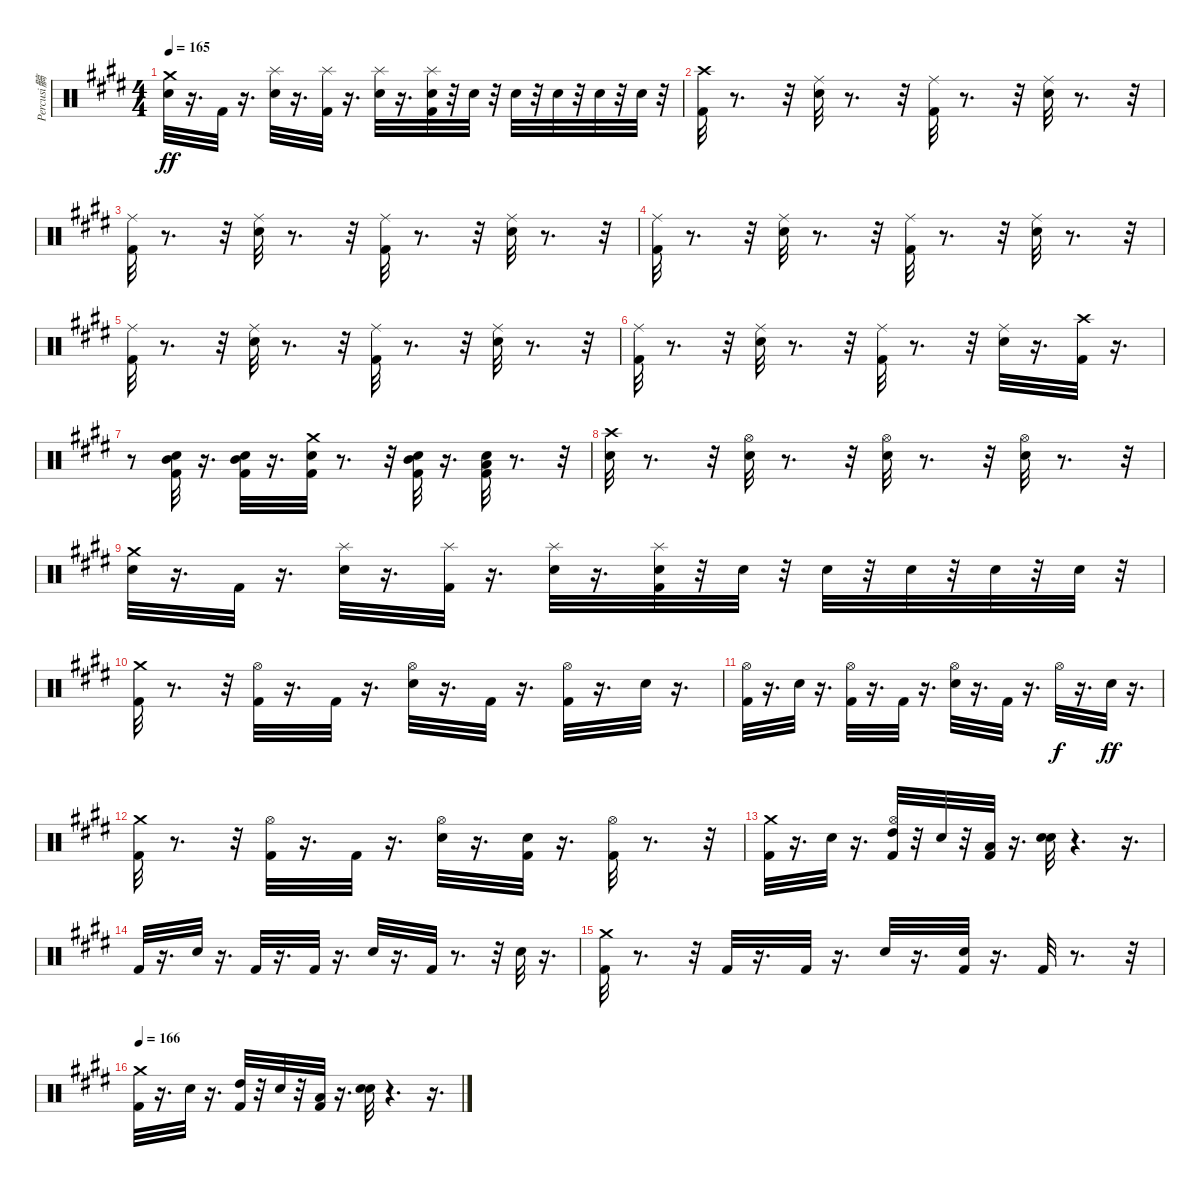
\track ("Percusi髇" "Percusi髇") {instrument percussion}
\staff {score}
\articulation defaults
\ts (4 4)
\tempo 165
\clef neutral
\ks e
("Crash medium (hit)" "Electric Snare (hit)").32{dy ff} r.16{d} "Kick (hit) 2".32 r.16{d} ("Splash (hit)" "Electric Snare (hit)").32 r.16{d} ("Splash (hit)" "Kick (hit) 2").32 r.16{d} ("Splash (hit)" "Electric Snare (hit)").32 r.16{d} ("Splash (hit)" "Kick (hit) 2" "Electric Snare (hit)").32 r.32 "Electric Snare (hit)".32 r.32 "Electric Snare (hit)".32 r.32 "Electric Snare (hit)".32 r.32 "Electric Snare (hit)".32 r.32 "Electric Snare (hit)".32 r.32 |
("Crash high (hit)" "Kick (hit) 2").32 r.8{d} r.32 ("Electric Snare (hit)" "Ride (middle)").32 r.8{d} r.32 ("Kick (hit) 2" "Ride (middle)").32 r.8{d} r.32 ("Electric Snare (hit)" "Ride (middle)").32 r.8{d} r.32 |
("Kick (hit) 2" "Ride (middle)").32 r.8{d} r.32 ("Electric Snare (hit)" "Ride (middle)").32 r.8{d} r.32 ("Kick (hit) 2" "Ride (middle)").32 r.8{d} r.32 ("Electric Snare (hit)" "Ride (middle)").32 r.8{d} r.32 |
("Kick (hit) 2" "Ride (middle)").32 r.8{d} r.32 ("Electric Snare (hit)" "Ride (middle)").32 r.8{d} r.32 ("Kick (hit) 2" "Ride (middle)").32 r.8{d} r.32 ("Electric Snare (hit)" "Ride (middle)").32 r.8{d} r.32 |
("Kick (hit) 2" "Ride (middle)").32 r.8{d} r.32 ("Electric Snare (hit)" "Ride (middle)").32 r.8{d} r.32 ("Kick (hit) 2" "Ride (middle)").32 r.8{d} r.32 ("Electric Snare (hit)" "Ride (middle)").32 r.8{d} r.32 |
("Kick (hit) 2" "Ride (middle)").32 r.8{d} r.32 ("Electric Snare (hit)" "Ride (middle)").32 r.8{d} r.32 ("Kick (hit) 2" "Ride (middle)").32 r.8{d} r.32 ("Electric Snare (hit)" "Ride (middle)").32 r.16{d} ("Crash high (hit)" "Kick (hit) 2").32 r.16{d} |
r.8 ("Mid Tom (hit)" "Kick (hit) 2" "Electric Snare (hit)").32 r.16{d} ("Mid Tom (hit)" "Kick (hit) 2" "Electric Snare (hit)").32 r.16{d} ("Crash medium (hit)" "Kick (hit) 2" "Electric Snare (hit)").32 r.8{d} r.32 ("Mid Tom (hit)" "Kick (hit) 2" "Electric Snare (hit)").32 r.16{d} ("Kick (hit) 2" "Low Tom (hit)" "Electric Snare (hit)").32 r.8{d} r.32 |
("Crash high (hit)" "Electric Snare (hit)").32 r.8{d} r.32 ("Electric Snare (hit)" "Hi-Hat (open)").32 r.8{d} r.32 ("Electric Snare (hit)" "Hi-Hat (open)").32 r.8{d} r.32 ("Electric Snare (hit)" "Hi-Hat (open)").32 r.8{d} r.32 |
("Crash medium (hit)" "Electric Snare (hit)").32 r.16{d} "Kick (hit) 2".32 r.16{d} ("Splash (hit)" "Electric Snare (hit)").32 r.16{d} ("Splash (hit)" "Kick (hit) 2").32 r.16{d} ("Splash (hit)" "Electric Snare (hit)").32 r.16{d} ("Splash (hit)" "Kick (hit) 2" "Electric Snare (hit)").32 r.32 "Electric Snare (hit)".32 r.32 "Electric Snare (hit)".32 r.32 "Electric Snare (hit)".32 r.32 "Electric Snare (hit)".32 r.32 "Electric Snare (hit)".32 r.32 |
("Crash medium (hit)" "Kick (hit) 2").32 r.8{d} r.32 ("Kick (hit) 2" "Hi-Hat (open)").32 r.16{d} "Kick (hit) 2".32 r.16{d} ("Electric Snare (hit)" "Hi-Hat (open)").32 r.16{d} "Kick (hit) 2".32 r.16{d} ("Kick (hit) 2" "Hi-Hat (open)").32 r.16{d} "Electric Snare (hit)".32 r.16{d} |
("Kick (hit) 2" "Hi-Hat (open)").32 r.16{d} "Electric Snare (hit)".32 r.16{d} ("Kick (hit) 2" "Hi-Hat (open)").32 r.16{d} "Kick (hit) 2".32 r.16{d} ("Electric Snare (hit)" "Hi-Hat (open)").32 r.16{d} "Kick (hit) 2".32 r.16{d} "Hi-Hat (open)".32{dy f} r.16{d} "Electric Snare (hit)".32{dy ff} r.16{d} |
("Crash medium (hit)" "Kick (hit) 2").32 r.8{d} r.32 ("Kick (hit) 2" "Hi-Hat (open)").32 r.16{d} "Kick (hit) 2".32 r.16{d} ("Electric Snare (hit)" "Hi-Hat (open)").32 r.16{d} ("Kick (hit) 2" "Electric Snare (hit)").32 r.16{d} ("Kick (hit) 2" "Hi-Hat (open)").32 r.8{d} r.32 |
("Crash medium (hit)" "Kick (hit) 2").32 r.16{d} "Electric Snare (hit)".32 r.16{d} ("High Tom (hit)" "Kick (hit) 2" "Hi-Hat (open)").32 r.32 "Electric Snare (hit)".32 r.32 ("Kick (hit) 2" "Low Tom (hit)").32 r.16{d} ("Electric Snare (hit)" "Electric Snare (hit)").32 r.4{d} r.16{d} |
"Kick (hit) 2".32 r.16{d} "Electric Snare (hit)".32 r.16{d} "Kick (hit) 2".32 r.16{d} "Kick (hit) 2".32 r.16{d} "Electric Snare (hit)".32 r.16{d} "Kick (hit) 2".32 r.8{d} r.32 "Electric Snare (hit)".32 r.16{d} |
("Crash medium (hit)" "Kick (hit) 2").32 r.8{d} r.32 "Kick (hit) 2".32 r.16{d} "Kick (hit) 2".32 r.16{d} "Electric Snare (hit)".32 r.16{d} ("Kick (hit) 2" "Electric Snare (hit)").32 r.16{d} "Kick (hit) 2".32 r.8{d} r.32 |
\tempo 166
("Crash medium (hit)" "Kick (hit) 2").32 r.16{d} "Electric Snare (hit)".32 r.16{d} ("High Tom (hit)" "Kick (hit) 2").32 r.32 "Electric Snare (hit)".32 r.32 ("Kick (hit) 2" "Low Tom (hit)").32 r.16{d} ("Electric Snare (hit)" "Electric Snare (hit)").32 r.4{d} r.16{d}
